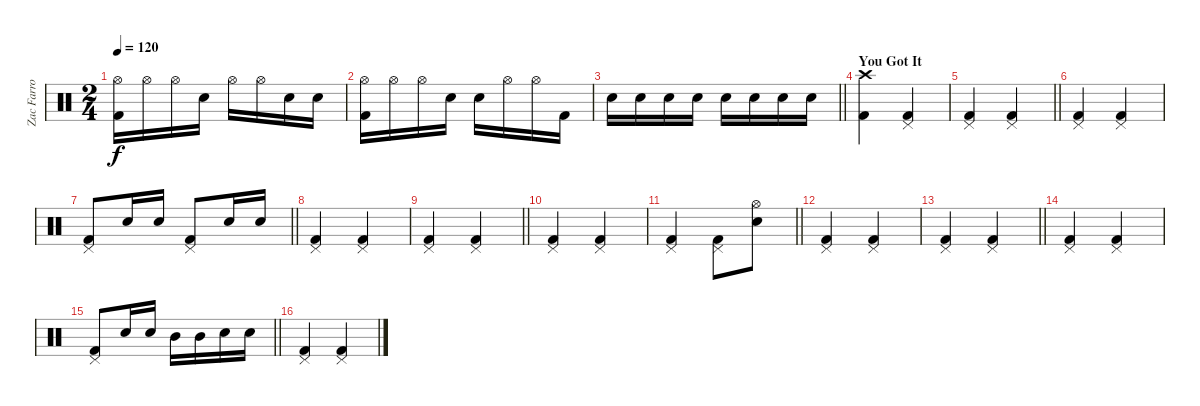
\track ("Zac Farro" "Zac Farro") {instrument percussion}
\staff {score}
\articulation defaults
\ts (2 4)
\tempo 120
\clef neutral
\ks c
("Hi-Hat (open)" "Kick (hit) 2").16{dy f} "Hi-Hat (open)".16 "Hi-Hat (open)".16 "Electric Snare (hit)".16 "Hi-Hat (open)".16 "Hi-Hat (open)".16 "Electric Snare (hit)".16 "Electric Snare (hit)".16 |
("Hi-Hat (open)" "Kick (hit) 2").16 "Hi-Hat (open)".16 "Hi-Hat (open)".16 "Electric Snare (hit)".16 "Electric Snare (hit)".16 "Hi-Hat (open)".16 "Hi-Hat (open)".16 "Kick (hit) 2".16 |
\barLineRight lightlight "Electric Snare (hit)".16 "Electric Snare (hit)".16 "Electric Snare (hit)".16 "Electric Snare (hit)".16 "Electric Snare (hit)".16 "Electric Snare (hit)".16 "Electric Snare (hit)".16 "Electric Snare (hit)".16
|
\section ("" "You Got It")
("Crash high (hit)" "Kick (hit) 2").4 ("Kick (hit) 2" "Pedal Hi-Hat (hit)").4 |
\barLineRight lightlight
("Kick (hit) 2" "Pedal Hi-Hat (hit)").4 ("Kick (hit) 2" "Pedal Hi-Hat (hit)").4 |
("Kick (hit) 2" "Pedal Hi-Hat (hit)").4 ("Kick (hit) 2" "Pedal Hi-Hat (hit)").4 |
\barLineRight lightlight
("Kick (hit) 2" "Pedal Hi-Hat (hit)").8 "Electric Snare (hit)".16 "Electric Snare (hit)".16 ("Kick (hit) 2" "Pedal Hi-Hat (hit)").8 "Electric Snare (hit)".16 "Electric Snare (hit)".16 |
("Kick (hit) 2" "Pedal Hi-Hat (hit)").4 ("Kick (hit) 2" "Pedal Hi-Hat (hit)").4 |
\barLineRight lightlight
("Kick (hit) 2" "Pedal Hi-Hat (hit)").4 ("Kick (hit) 2" "Pedal Hi-Hat (hit)").4 |
("Kick (hit) 2" "Pedal Hi-Hat (hit)").4 ("Kick (hit) 2" "Pedal Hi-Hat (hit)").4 |
\barLineRight lightlight
("Kick (hit) 2" "Pedal Hi-Hat (hit)").4 ("Kick (hit) 2" "Pedal Hi-Hat (hit)").8 ("Electric Snare (hit)" "Hi-Hat (open)").8 |
("Kick (hit) 2" "Pedal Hi-Hat (hit)").4 ("Kick (hit) 2" "Pedal Hi-Hat (hit)").4 |
\barLineRight lightlight
("Kick (hit) 2" "Pedal Hi-Hat (hit)").4 ("Kick (hit) 2" "Pedal Hi-Hat (hit)").4 |
("Kick (hit) 2" "Pedal Hi-Hat (hit)").4 ("Kick (hit) 2" "Pedal Hi-Hat (hit)").4 |
\barLineRight lightlight
("Kick (hit) 2" "Pedal Hi-Hat (hit)").8 "Electric Snare (hit)".16 "Electric Snare (hit)".16 "Mid Tom (hit)".16 "Mid Tom (hit)".16 "Electric Snare (hit)".16 "Electric Snare (hit)".16 |
("Kick (hit) 2" "Pedal Hi-Hat (hit)").4 ("Kick (hit) 2" "Pedal Hi-Hat (hit)").4
